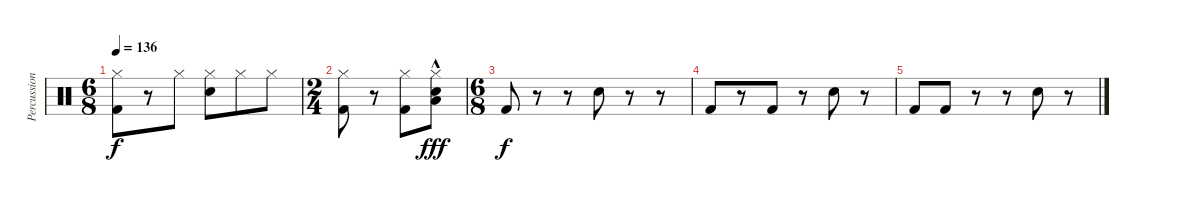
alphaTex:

\track ("Percussion" "Percussion") {instrument percussion}
\staff {score}
\articulation defaults
\ts (6 8)
\tempo 136
\clef neutral
\ks c
("Hi-Hat (closed)" "Kick (hit) 2").8{dy f} r.8 "Hi-Hat (closed)".8 ("Hi-Hat (closed)" "Snare (hit) 2").8 "Hi-Hat (closed)".8 "Hi-Hat (closed)".8 |
\ts (2 4)
("Hi-Hat (closed)" "Kick (hit) 2").8 r.8 ("Hi-Hat (closed)" "Kick (hit) 2").8 ("Hi-Hat (closed)" "Low Tom (hit)"{hac} "Snare (hit) 2").8{dy fff} |
\ts (6 8)
"Kick (hit) 2".8{dy f} r.8 r.8 "Snare (hit) 2".8 r.8 r.8 |
"Kick (hit) 2".8 r.8 "Kick (hit) 2".8 r.8 "Snare (hit) 2".8 r.8 |
"Kick (hit) 2".8 "Kick (hit) 2".8 r.8 r.8 "Snare (hit) 2".8 r.8
